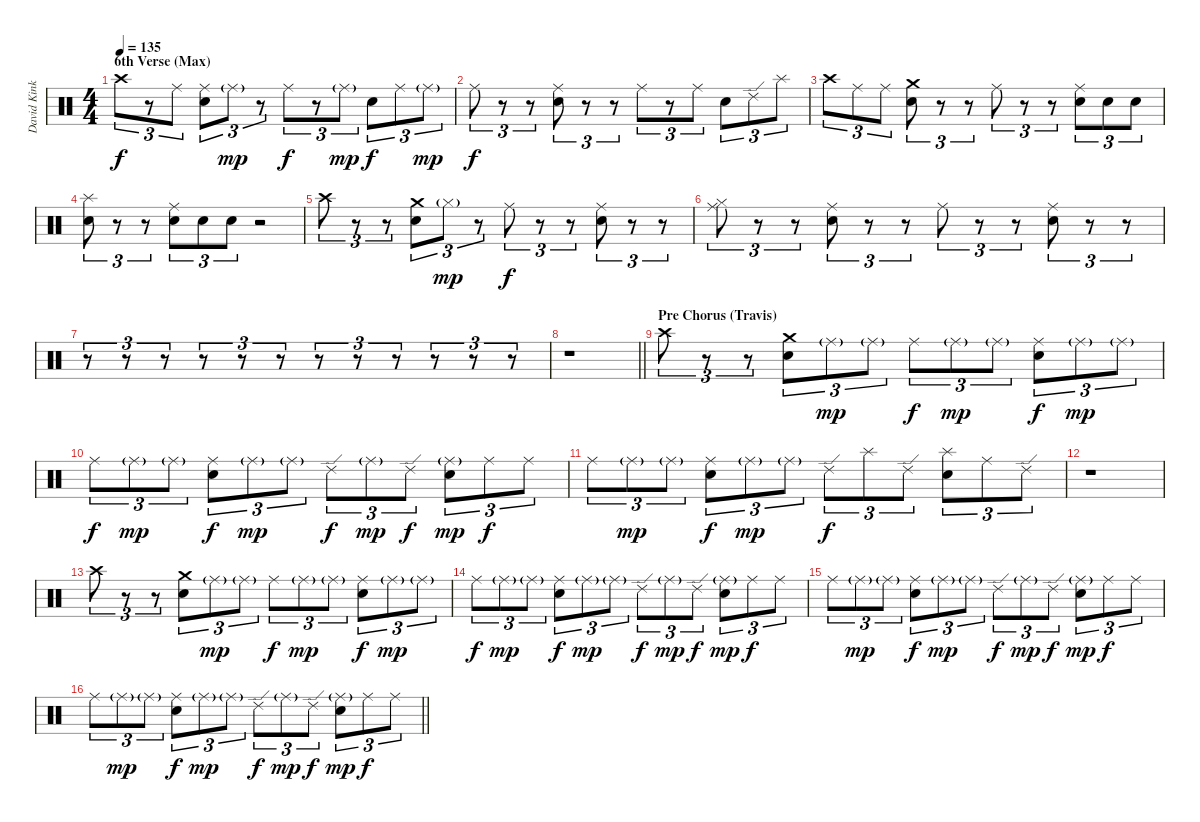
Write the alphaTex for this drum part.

\track ("David Kinkade" "David Kink") {instrument percussion}
\staff {score}
\articulation defaults
\ts (4 4)
\section ("" "6th Verse (Max)")
\tempo 135
\clef neutral
\ks c "Crash high (hit)".8{tu (3 2) dy f}
r.8{tu (3 2)} "Ride (middle)".8{tu (3 2)} ("Ride (middle)" "Snare (hit) 2").8{tu (3 2)} "Ride (middle)"{g}.8{tu (3 2) dy mp} r.8{tu (3 2)} "Ride (middle)".8{tu (3 2) dy f} r.8{tu (3 2)} "Ride (middle)"{g}.8{tu (3 2) dy mp} "Snare (hit) 2".8{tu (3 2) dy f} "Ride (middle)".8{tu (3 2)} "Ride (middle)"{g}.8{tu (3 2) dy mp} |
"Ride (middle)".8{tu (3 2) dy f} r.8{tu (3 2)} r.8{tu (3 2)} ("Ride (middle)" "Snare (hit) 2").8{tu (3 2)} r.8{tu (3 2)} r.8{tu (3 2)} "Ride (middle)".8{tu (3 2)} r.8{tu (3 2)} "Ride (middle)".8{tu (3 2)} "Snare (hit) 2".8{tu (3 2)} "Ride (edge) 2".8{tu (3 2)} "Splash (hit)".8{tu (3 2)} |
"Crash high (hit)".8{tu (3 2)} "Ride (middle)".8{tu (3 2)} "Ride (middle)".8{tu (3 2)} ("Crash medium (hit)" "Snare (hit) 2").8{tu (3 2)} r.8{tu (3 2)} r.8{tu (3 2)} "Ride (middle)".8{tu (3 2)} r.8{tu (3 2)} r.8{tu (3 2)} ("Ride (middle)" "Snare (hit) 2").8{tu (3 2)} "Snare (hit) 2".8{tu (3 2)} "Snare (hit) 2".8{tu (3 2)} |
("Splash (hit)" "Snare (hit) 2").8{tu (3 2)} r.8{tu (3 2)} r.8{tu (3 2)} ("Ride (middle)" "Snare (hit) 2").8{tu (3 2)} "Snare (hit) 2".8{tu (3 2)} "Snare (hit) 2".8{tu (3 2)} r.2 |
"Crash high (hit)".8{tu (3 2)} r.8{tu (3 2)} r.8{tu (3 2)} ("Crash medium (hit)" "Snare (hit) 2").8{tu (3 2)} "Hi-Hat (closed)"{g}.8{tu (3 2) dy mp} r.8{tu (3 2)} "Ride (middle)".8{tu (3 2) dy f} r.8{tu (3 2)} r.8{tu (3 2)} ("Ride (middle)" "Snare (hit) 2").8{tu (3 2)} r.8{tu (3 2)} r.8{tu (3 2)} |
("Ride (middle)" "Hi-Hat (closed)").8{tu (3 2)} r.8{tu (3 2)} r.8{tu (3 2)} ("Ride (middle)" "Snare (hit) 2").8{tu (3 2)} r.8{tu (3 2)} r.8{tu (3 2)} "Ride (middle)".8{tu (3 2)} r.8{tu (3 2)} r.8{tu (3 2)} ("Ride (middle)" "Snare (hit) 2").8{tu (3 2)} r.8{tu (3 2)} r.8{tu (3 2)} |
r.8{tu (3 2)} r.8{tu (3 2)} r.8{tu (3 2)} r.8{tu (3 2)} r.8{tu (3 2)} r.8{tu (3 2)} r.8{tu (3 2)} r.8{tu (3 2)} r.8{tu (3 2)} r.8{tu (3 2)} r.8{tu (3 2)} r.8{tu (3 2)} |
\barLineRight lightlight
r.1 |
\section ("" "Pre Chorus (Travis)")
"Crash high (hit)".8{tu (3 2)} r.8{tu (3 2)} r.8{tu (3 2)} ("Crash medium (hit)" "Snare (hit) 2").8{tu (3 2)} "Ride (middle)"{g}.8{tu (3 2) dy mp} "Ride (middle)"{g}.8{tu (3 2)} "Ride (middle)".8{tu (3 2) dy f} "Ride (middle)"{g}.8{tu (3 2) dy mp} "Ride (middle)"{g}.8{tu (3 2)} ("Ride (middle)" "Snare (hit) 2").8{tu (3 2) dy f} "Ride (middle)"{g}.8{tu (3 2) dy mp} "Ride (middle)"{g}.8{tu (3 2)} |
"Ride (middle)".8{tu (3 2) dy f} "Ride (middle)"{g}.8{tu (3 2) dy mp} "Ride (middle)"{g}.8{tu (3 2)} ("Ride (middle)" "Snare (hit) 2").8{tu (3 2) dy f} "Ride (middle)"{g}.8{tu (3 2) dy mp} "Ride (middle)"{g}.8{tu (3 2)} "Ride (edge) 2".8{tu (3 2) dy f} "Ride (middle)"{g}.8{tu (3 2) dy mp} "Ride (edge) 2".8{tu (3 2) dy f} ("Ride (middle)"{g} "Snare (hit) 2").8{tu (3 2) dy mp} "Ride (middle)".8{tu (3 2) dy f} "Ride (middle)".8{tu (3 2)} |
"Ride (middle)".8{tu (3 2)} "Ride (middle)"{g}.8{tu (3 2) dy mp} "Ride (middle)"{g}.8{tu (3 2)} ("Ride (middle)" "Snare (hit) 2").8{tu (3 2) dy f} "Ride (middle)"{g}.8{tu (3 2) dy mp} "Ride (middle)"{g}.8{tu (3 2)} "Ride (edge) 2".8{tu (3 2) dy f} "Splash (hit)".8{tu (3 2)} "Ride (edge) 2".8{tu (3 2)} ("Splash (hit)" "Snare (hit) 2").8{tu (3 2)} "Ride (middle)".8{tu (3 2)} "Ride (edge) 2".8{tu (3 2)} |
r.1 |
"Crash high (hit)".8{tu (3 2)} r.8{tu (3 2)} r.8{tu (3 2)} ("Crash medium (hit)" "Snare (hit) 2").8{tu (3 2)} "Ride (middle)"{g}.8{tu (3 2) dy mp} "Ride (middle)"{g}.8{tu (3 2)} "Ride (middle)".8{tu (3 2) dy f} "Ride (middle)"{g}.8{tu (3 2) dy mp} "Ride (middle)"{g}.8{tu (3 2)} ("Ride (middle)" "Snare (hit) 2").8{tu (3 2) dy f} "Ride (middle)"{g}.8{tu (3 2) dy mp} "Ride (middle)"{g}.8{tu (3 2)} |
"Ride (middle)".8{tu (3 2) dy f} "Ride (middle)"{g}.8{tu (3 2) dy mp} "Ride (middle)"{g}.8{tu (3 2)} ("Ride (middle)" "Snare (hit) 2").8{tu (3 2) dy f} "Ride (middle)"{g}.8{tu (3 2) dy mp} "Ride (middle)"{g}.8{tu (3 2)} "Ride (edge) 2".8{tu (3 2) dy f} "Ride (middle)"{g}.8{tu (3 2) dy mp} "Ride (edge) 2".8{tu (3 2) dy f} ("Ride (middle)"{g} "Snare (hit) 2").8{tu (3 2) dy mp} "Ride (middle)".8{tu (3 2) dy f} "Ride (middle)".8{tu (3 2)} |
"Ride (middle)".8{tu (3 2)} "Ride (middle)"{g}.8{tu (3 2) dy mp} "Ride (middle)"{g}.8{tu (3 2)} ("Ride (middle)" "Snare (hit) 2").8{tu (3 2) dy f} "Ride (middle)"{g}.8{tu (3 2) dy mp} "Ride (middle)"{g}.8{tu (3 2)} "Ride (edge) 2".8{tu (3 2) dy f} "Ride (middle)"{g}.8{tu (3 2) dy mp} "Ride (edge) 2".8{tu (3 2) dy f} ("Ride (middle)"{g} "Snare (hit) 2").8{tu (3 2) dy mp} "Ride (middle)".8{tu (3 2) dy f} "Ride (middle)".8{tu (3 2)} |
\barLineRight lightlight "Ride (middle)".8{tu (3 2)} "Ride (middle)"{g}.8{tu (3 2) dy mp} "Ride (middle)"{g}.8{tu (3 2)}
("Ride (middle)" "Snare (hit) 2").8{tu (3 2) dy f} "Ride (middle)"{g}.8{tu (3 2) dy mp} "Ride (middle)"{g}.8{tu (3 2)} "Ride (edge) 2".8{tu (3 2) dy f} "Ride (middle)"{g}.8{tu (3 2) dy mp} "Ride (edge) 2".8{tu (3 2) dy f} ("Ride (middle)"{g} "Snare (hit) 2").8{tu (3 2) dy mp} "Ride (middle)".8{tu (3 2) dy f} "Ride (middle)".8{tu (3 2)}
